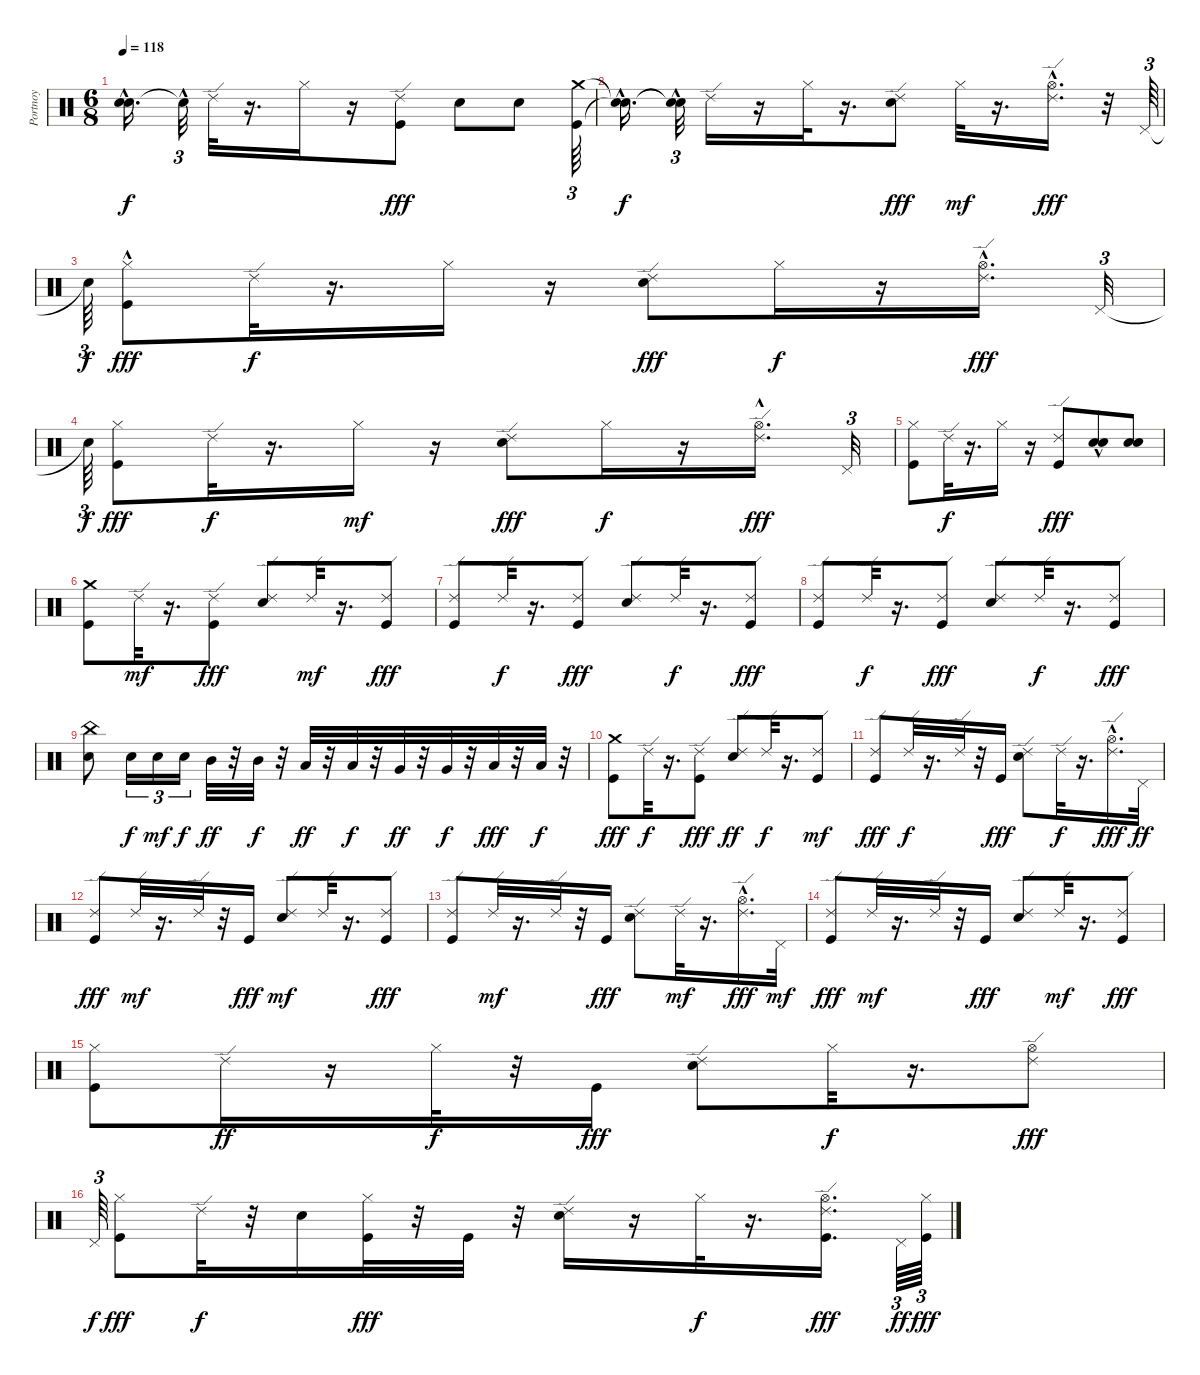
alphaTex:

\track ("Portnoy" "Portnoy") {instrument percussion}
\staff {score}
\articulation defaults
\ts (6 8)
\tempo 118
\clef neutral
\ks c
("Snare (hit)"{hac t} "Snare (hit)"{hac t}).16{d dy f} "Snare (hit)"{hac t}.32{tu (3 2)} "Ride (edge) 2".32 r.16{d} "Hi-Hat (closed)".16 r.16 ("Kick (hit)" "Ride (edge) 2").8{dy fff} "Snare (hit) 2".8 "Snare (hit) 2".8 ("Crash medium (hit)" "Kick (hit)").64{tu (3 2)} |
("Snare (hit)"{hac t} "Snare (hit)"{hac t}).16{d dy f} ("Snare (hit)"{t} "Snare (hit)"{hac t}).32{tu (3 2)} "Ride (edge) 2".16 r.16 "Hi-Hat (closed)".32 r.16{d} ("Ride (edge) 2" "Snare (hit) 2").8{dy fff} "Hi-Hat (closed)".32{dy mf} r.16{d} ("Hi-Hat (open)"{hac} "Ride (edge) 2").16{d dy fff} r.32 "Pedal Hi-Hat (hit)".64{tu (3 2)} |
"Snare (hit)"{t}.64{tu (3 2) dy f} ("Hi-Hat (closed)" "Kick (hit)"{hac}).8{dy fff} "Ride (edge) 2".32{dy f} r.16{d} "Hi-Hat (closed)".16 r.16 ("Ride (edge) 2" "Snare (hit) 2").8{dy fff} "Hi-Hat (closed)".16{dy f} r.16 ("Hi-Hat (open)"{hac} "Ride (edge) 2").16{d dy fff} "Pedal Hi-Hat (hit)".32{tu (3 2)} |
"Snare (hit)"{t}.64{tu (3 2) dy f} ("Kick (hit)" "Hi-Hat (closed)").8{dy fff} "Ride (edge) 2".32{dy f} r.16{d} "Hi-Hat (closed)".16{dy mf} r.16 ("Snare (hit) 2" "Ride (edge) 2").8{dy fff} "Hi-Hat (closed)".16{dy f} r.16 ("Ride (edge) 2" "Hi-Hat (open)"{hac}).16{d dy fff} "Pedal Hi-Hat (hit)".32{tu (3 2)} |
("Kick (hit)" "Hi-Hat (closed)").8 "Ride (edge) 2".32{dy f} r.16{d} "Hi-Hat (closed)".16 r.16 ("Ride (edge) 2" "Kick (hit)").8{dy fff} ("Snare (hit) 2" "Snare (hit) 2"{hac}).8 ("Snare (hit) 2" "Snare (hit) 2").8 |
("Crash medium (hit)" "Kick (hit)").8 "Ride (edge) 2".32{dy mf} r.16{d} ("Ride (edge) 2" "Kick (hit)").8{dy fff} ("Ride (edge) 2" "Snare (hit) 2").8 "Ride (edge) 2".32{dy mf} r.16{d} ("Ride (edge) 2" "Kick (hit)").8{dy fff} |
("Kick (hit)" "Ride (edge) 2").8 "Ride (edge) 2".32{dy f} r.16{d} ("Kick (hit)" "Ride (edge) 2").8{dy fff} ("Snare (hit) 2" "Ride (edge) 2").8 "Ride (edge) 2".32{dy f} r.16{d} ("Kick (hit)" "Ride (edge) 2").8{dy fff} |
("Kick (hit)" "Ride (edge) 2").8 "Ride (edge) 2".32{dy f} r.16{d} ("Ride (edge) 2" "Kick (hit)").8{dy fff} ("Snare (hit) 2" "Ride (edge) 2").8 "Ride (edge) 2".32{dy f} r.16{d} ("Ride (edge) 2" "Kick (hit)").8{dy fff} |
("China (hit)" "Snare (hit) 2").8 "Snare (hit) 2".16{tu (3 2) dy f} "Snare (hit) 2".16{tu (3 2) dy mf} "Snare (hit) 2".16{tu (3 2) dy f} "Mid Tom (hit)".32{dy ff} r.32 "Mid Tom (hit)".32{dy f} r.32 "Low Tom (hit)".32{dy ff} r.32 "Low Tom (hit)".32{dy f} r.32 "Very Low Tom (hit)".32{dy ff} r.32 "Very Low Tom (hit)".32{dy f} r.32 "Low Floor Tom (hit)".32{dy fff} r.32 "Low Floor Tom (hit)".32{dy f} r.32 |
("Crash medium (hit)" "Kick (hit)").8{dy fff} "Ride (edge) 2".32{dy f} r.16{d} ("Kick (hit)" "Ride (edge) 2").8{dy fff} ("Snare (hit) 2" "Ride (edge) 2").8{dy ff} "Ride (edge) 2".32{dy f} r.16{d} ("Kick (hit)" "Ride (edge) 2").8{dy mf} |
("Kick (hit)" "Ride (edge) 2").8{dy fff} "Ride (edge) 2".32{dy f} r.16{d} "Ride (edge) 2".32 r.32 "Kick (hit)".16{dy fff} ("Snare (hit) 2" "Ride (edge) 2").8 "Ride (edge) 2".32{dy f} r.16{d} ("Hi-Hat (open)"{hac} "Ride (edge) 2").16{d dy fff} "Pedal Hi-Hat (hit)".32{dy ff} |
("Kick (hit)" "Ride (edge) 2").8{dy fff} "Ride (edge) 2".32{dy mf} r.16{d} "Ride (edge) 2".32 r.32 "Kick (hit)".16{dy fff} ("Snare (hit) 2" "Ride (edge) 2").8{dy mf} "Ride (edge) 2".32 r.16{d} ("Ride (edge) 2" "Kick (hit)").8{dy fff} |
("Kick (hit)" "Ride (edge) 2").8 "Ride (edge) 2".32{dy mf} r.16{d} "Ride (edge) 2".32 r.32 "Kick (hit)".16{dy fff} ("Snare (hit) 2" "Ride (edge) 2").8 "Ride (edge) 2".32{dy mf} r.16{d} ("Hi-Hat (open)"{hac} "Ride (edge) 2").16{d dy fff} "Pedal Hi-Hat (hit)".32{dy mf} |
("Kick (hit)" "Ride (edge) 2").8{dy fff} "Ride (edge) 2".32{dy mf} r.16{d} "Ride (edge) 2".32 r.32 "Kick (hit)".16{dy fff} ("Snare (hit) 2" "Ride (edge) 2").8 "Ride (edge) 2".32{dy mf} r.16{d} ("Ride (edge) 2" "Kick (hit)").8{dy fff} |
("Kick (hit)" "Hi-Hat (closed)").8 "Ride (edge) 2".16{dy ff} r.16 "Hi-Hat (closed)".32{dy f} r.32 "Kick (hit)".16{dy fff} ("Ride (edge) 2" "Snare (hit) 2").8 "Hi-Hat (closed)".32{dy f} r.16{d} ("Ride (edge) 2" "Hi-Hat (open)").8{dy fff} |
"Pedal Hi-Hat (hit)".64{tu (3 2) dy f} ("Kick (hit)" "Hi-Hat (closed)").8{dy fff} "Ride (edge) 2".32{dy f} r.32 "Snare (hit) 2".16 ("Hi-Hat (closed)" "Kick (hit)").32{dy fff} r.32 "Kick (hit)".32 r.32 ("Snare (hit) 2" "Ride (edge) 2").16 r.16 "Hi-Hat (closed)".32{dy f} r.16{d} ("Ride (edge) 2" "Hi-Hat (open)" "Kick (hit)").16{d dy fff} "Pedal Hi-Hat (hit)".64{tu (3 2) dy ff} ("Hi-Hat (closed)" "Kick (hit)").64{tu (3 2) dy fff}
